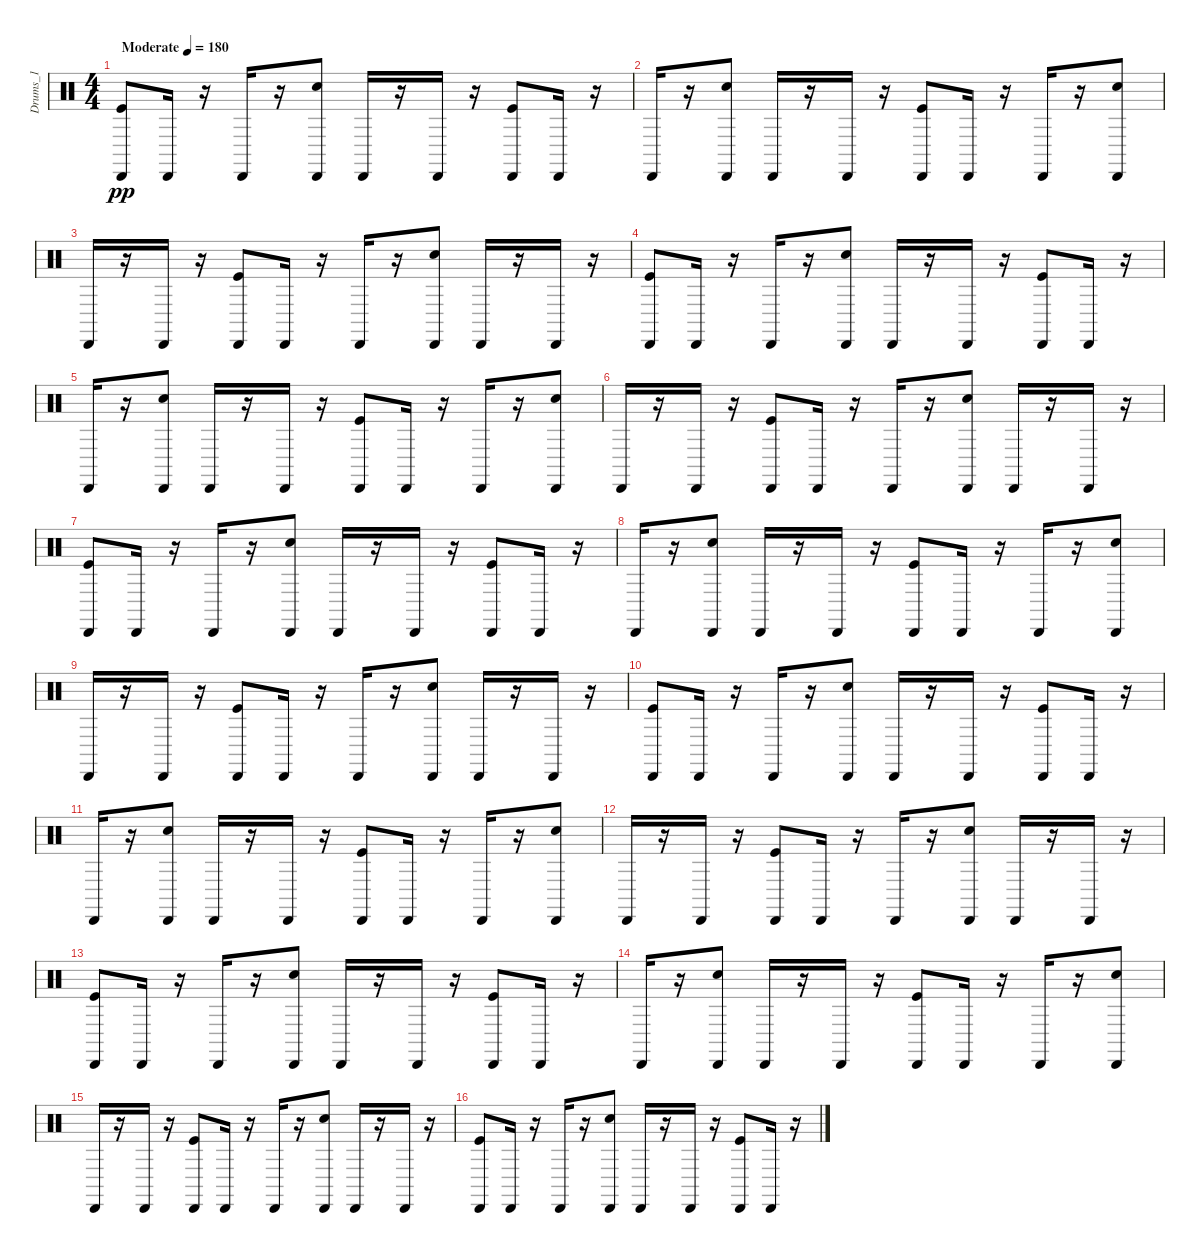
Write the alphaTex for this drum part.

\track ("Drums_1" "Drums_1") {instrument percussion}
\staff {score}
\articulation defaults
\ts (4 4)
\tempo (180 "Moderate")
\clef neutral
\ks c
("Kick (hit)" "Cabasa (hit)").8{dy pp} "Cabasa (hit)".16 r.16 "Cabasa (hit)".16 r.16 ("Snare (hit) 2" "Cabasa (hit)").8 "Cabasa (hit)".16 r.16 "Cabasa (hit)".16 r.16 ("Kick (hit)" "Cabasa (hit)").8 "Cabasa (hit)".16 r.16 |
"Cabasa (hit)".16 r.16 ("Snare (hit) 2" "Cabasa (hit)").8 "Cabasa (hit)".16 r.16 "Cabasa (hit)".16 r.16 ("Kick (hit)" "Cabasa (hit)").8 "Cabasa (hit)".16 r.16 "Cabasa (hit)".16 r.16 ("Snare (hit) 2" "Cabasa (hit)").8 |
"Cabasa (hit)".16 r.16 "Cabasa (hit)".16 r.16 ("Kick (hit)" "Cabasa (hit)").8 "Cabasa (hit)".16 r.16 "Cabasa (hit)".16 r.16 ("Snare (hit) 2" "Cabasa (hit)").8 "Cabasa (hit)".16 r.16 "Cabasa (hit)".16 r.16 |
("Kick (hit)" "Cabasa (hit)").8 "Cabasa (hit)".16 r.16 "Cabasa (hit)".16 r.16 ("Snare (hit) 2" "Cabasa (hit)").8 "Cabasa (hit)".16 r.16 "Cabasa (hit)".16 r.16 ("Kick (hit)" "Cabasa (hit)").8 "Cabasa (hit)".16 r.16 |
"Cabasa (hit)".16 r.16 ("Snare (hit) 2" "Cabasa (hit)").8 "Cabasa (hit)".16 r.16 "Cabasa (hit)".16 r.16 ("Kick (hit)" "Cabasa (hit)").8 "Cabasa (hit)".16 r.16 "Cabasa (hit)".16 r.16 ("Snare (hit) 2" "Cabasa (hit)").8 |
"Cabasa (hit)".16 r.16 "Cabasa (hit)".16 r.16 ("Kick (hit)" "Cabasa (hit)").8 "Cabasa (hit)".16 r.16 "Cabasa (hit)".16 r.16 ("Snare (hit) 2" "Cabasa (hit)").8 "Cabasa (hit)".16 r.16 "Cabasa (hit)".16 r.16 |
("Kick (hit)" "Cabasa (hit)").8 "Cabasa (hit)".16 r.16 "Cabasa (hit)".16 r.16 ("Snare (hit) 2" "Cabasa (hit)").8 "Cabasa (hit)".16 r.16 "Cabasa (hit)".16 r.16 ("Kick (hit)" "Cabasa (hit)").8 "Cabasa (hit)".16 r.16 |
"Cabasa (hit)".16 r.16 ("Snare (hit) 2" "Cabasa (hit)").8 "Cabasa (hit)".16 r.16 "Cabasa (hit)".16 r.16 ("Kick (hit)" "Cabasa (hit)").8 "Cabasa (hit)".16 r.16 "Cabasa (hit)".16 r.16 ("Snare (hit) 2" "Cabasa (hit)").8 |
"Cabasa (hit)".16 r.16 "Cabasa (hit)".16 r.16 ("Kick (hit)" "Cabasa (hit)").8 "Cabasa (hit)".16 r.16 "Cabasa (hit)".16 r.16 ("Snare (hit) 2" "Cabasa (hit)").8 "Cabasa (hit)".16 r.16 "Cabasa (hit)".16 r.16 |
("Kick (hit)" "Cabasa (hit)").8 "Cabasa (hit)".16 r.16 "Cabasa (hit)".16 r.16 ("Snare (hit) 2" "Cabasa (hit)").8 "Cabasa (hit)".16 r.16 "Cabasa (hit)".16 r.16 ("Kick (hit)" "Cabasa (hit)").8 "Cabasa (hit)".16 r.16 |
"Cabasa (hit)".16 r.16 ("Snare (hit) 2" "Cabasa (hit)").8 "Cabasa (hit)".16 r.16 "Cabasa (hit)".16 r.16 ("Kick (hit)" "Cabasa (hit)").8 "Cabasa (hit)".16 r.16 "Cabasa (hit)".16 r.16 ("Snare (hit) 2" "Cabasa (hit)").8 |
"Cabasa (hit)".16 r.16 "Cabasa (hit)".16 r.16 ("Kick (hit)" "Cabasa (hit)").8 "Cabasa (hit)".16 r.16 "Cabasa (hit)".16 r.16 ("Snare (hit) 2" "Cabasa (hit)").8 "Cabasa (hit)".16 r.16 "Cabasa (hit)".16 r.16 |
("Kick (hit)" "Cabasa (hit)").8 "Cabasa (hit)".16 r.16 "Cabasa (hit)".16 r.16 ("Snare (hit) 2" "Cabasa (hit)").8 "Cabasa (hit)".16 r.16 "Cabasa (hit)".16 r.16 ("Kick (hit)" "Cabasa (hit)").8 "Cabasa (hit)".16 r.16 |
"Cabasa (hit)".16 r.16 ("Snare (hit) 2" "Cabasa (hit)").8 "Cabasa (hit)".16 r.16 "Cabasa (hit)".16 r.16 ("Kick (hit)" "Cabasa (hit)").8 "Cabasa (hit)".16 r.16 "Cabasa (hit)".16 r.16 ("Snare (hit) 2" "Cabasa (hit)").8 |
"Cabasa (hit)".16 r.16 "Cabasa (hit)".16 r.16 ("Kick (hit)" "Cabasa (hit)").8 "Cabasa (hit)".16 r.16 "Cabasa (hit)".16 r.16 ("Snare (hit) 2" "Cabasa (hit)").8 "Cabasa (hit)".16 r.16 "Cabasa (hit)".16 r.16 |
("Kick (hit)" "Cabasa (hit)").8 "Cabasa (hit)".16 r.16 "Cabasa (hit)".16 r.16 ("Snare (hit) 2" "Cabasa (hit)").8 "Cabasa (hit)".16 r.16 "Cabasa (hit)".16 r.16 ("Kick (hit)" "Cabasa (hit)").8 "Cabasa (hit)".16 r.16
